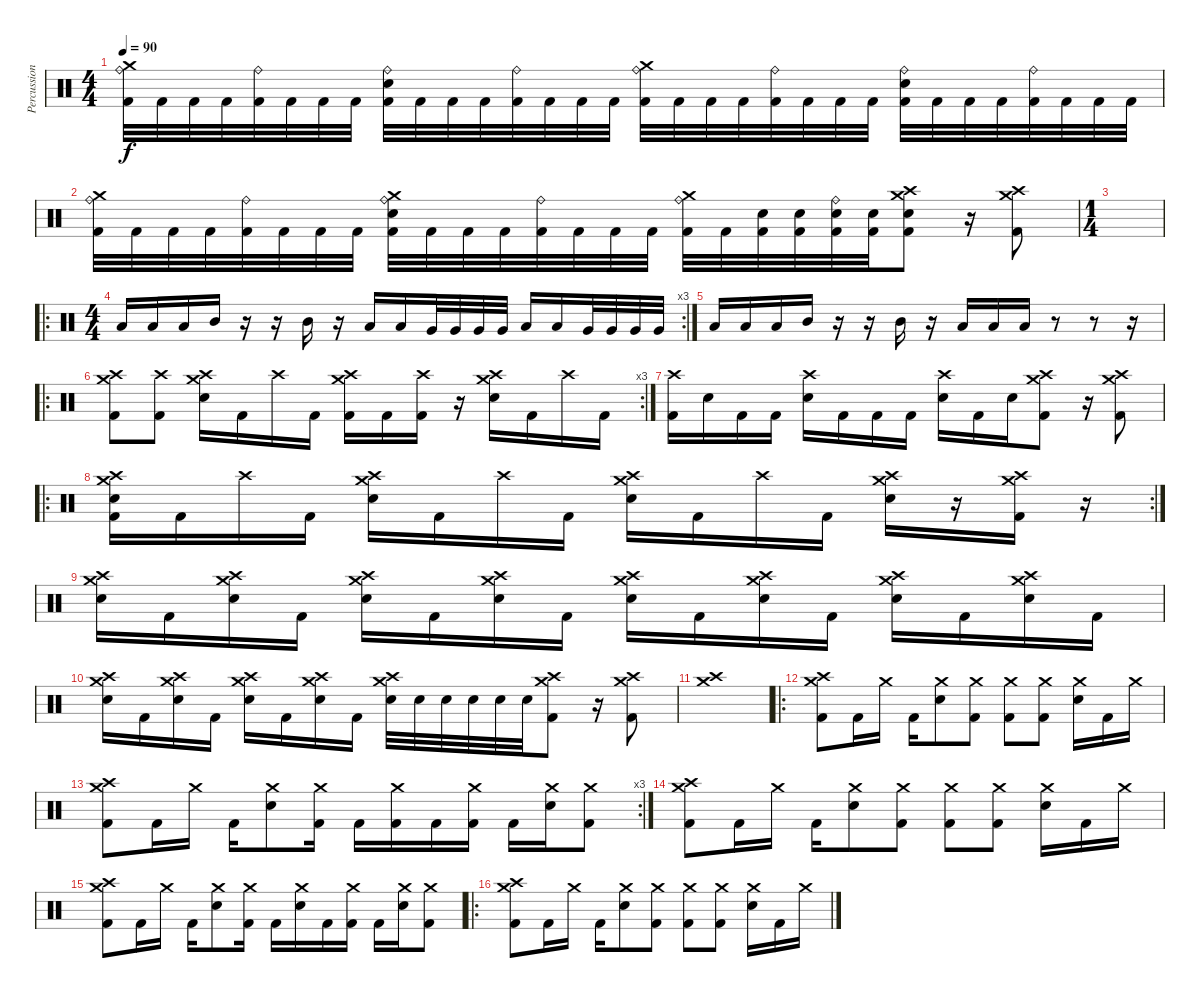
\track ("Percussion" "Percussion") {instrument percussion}
\staff {score}
\articulation defaults
\ts (4 4)
\tempo 90
\clef neutral
\ks c
("Ride (bell)" "Crash medium (hit)" "Kick (hit) 2").32{dy f} "Kick (hit) 2".32 "Kick (hit) 2".32 "Kick (hit) 2".32 ("Ride (bell)" "Kick (hit) 2").32 "Kick (hit) 2".32 "Kick (hit) 2".32 "Kick (hit) 2".32 ("Ride (bell)" "Electric Snare (hit)" "Kick (hit) 2").32 "Kick (hit) 2".32 "Kick (hit) 2".32 "Kick (hit) 2".32 ("Ride (bell)" "Kick (hit) 2").32 "Kick (hit) 2".32 "Kick (hit) 2".32 "Kick (hit) 2".32 ("Ride (bell)" "Crash medium (hit)" "Kick (hit) 2").32 "Kick (hit) 2".32 "Kick (hit) 2".32 "Kick (hit) 2".32 ("Ride (bell)" "Kick (hit) 2").32 "Kick (hit) 2".32 "Kick (hit) 2".32 "Kick (hit) 2".32 ("Ride (bell)" "Electric Snare (hit)" "Kick (hit) 2").32 "Kick (hit) 2".32 "Kick (hit) 2".32 "Kick (hit) 2".32 ("Ride (bell)" "Kick (hit) 2").32 "Kick (hit) 2".32 "Kick (hit) 2".32 "Kick (hit) 2".32 |
("Ride (bell)" "Crash medium (hit)" "Kick (hit) 2").32 "Kick (hit) 2".32 "Kick (hit) 2".32 "Kick (hit) 2".32 ("Ride (bell)" "Kick (hit) 2").32 "Kick (hit) 2".32 "Kick (hit) 2".32 "Kick (hit) 2".32 ("Ride (bell)" "Crash medium (hit)" "Electric Snare (hit)" "Kick (hit) 2").32 "Kick (hit) 2".32 "Kick (hit) 2".32 "Kick (hit) 2".32 ("Ride (bell)" "Kick (hit) 2").32 "Kick (hit) 2".32 "Kick (hit) 2".32 "Kick (hit) 2".32 ("Ride (bell)" "Crash medium (hit)" "Kick (hit) 2").32 "Kick (hit) 2".32 ("Electric Snare (hit)" "Kick (hit) 2").32 ("Electric Snare (hit)" "Kick (hit) 2").32 ("Ride (bell)" "Electric Snare (hit)" "Kick (hit) 2").32 ("Electric Snare (hit)" "Kick (hit) 2").32 ("Crash medium (hit)" "Crash high (hit)" "Electric Snare (hit)" "Kick (hit) 2").8 r.16 ("Crash high (hit)" "Crash medium (hit)" "Kick (hit) 2").8 |
\ts (1 4)
|
\ro
\rc 3
\ts (4 4)
"Low Tom (hit)".16 "Low Tom (hit)".16 "Low Tom (hit)".16 "Mid Tom (hit)".16 r.16 r.16 "Mid Tom (hit)".16 r.16 "Low Tom (hit)".16 "Low Tom (hit)".16 "Very Low Tom (hit)".32 "Very Low Tom (hit)".32 "Very Low Tom (hit)".32 "Very Low Tom (hit)".32 "Low Tom (hit)".16 "Low Tom (hit)".16 "Very Low Tom (hit)".32 "Very Low Tom (hit)".32 "Very Low Tom (hit)".32 "Very Low Tom (hit)".32 |
"Low Tom (hit)".16 "Low Tom (hit)".16 "Low Tom (hit)".16 "Mid Tom (hit)".16 r.16 r.16 "Mid Tom (hit)".16 r.16 "Low Tom (hit)".16 "Low Tom (hit)".16 "Low Tom (hit)".16 r.8 r.8 r.16 |
\ro
\rc 3
("Crash high (hit)" "Crash medium (hit)" "Kick (hit) 2").8 ("Crash high (hit)" "Kick (hit) 2").8 ("Crash high (hit)" "Crash medium (hit)" "Electric Snare (hit)").16 "Kick (hit) 2".16 "Crash high (hit)".16 "Kick (hit) 2".16 ("Crash high (hit)" "Crash medium (hit)" "Kick (hit) 2").16 "Kick (hit) 2".16 ("Crash high (hit)" "Kick (hit) 2").16 r.16 ("Crash high (hit)" "Crash medium (hit)" "Electric Snare (hit)").16 "Kick (hit) 2".16 "Crash high (hit)".16 "Kick (hit) 2".16 |
("Crash high (hit)" "Kick (hit) 2").16 "Electric Snare (hit)".16 "Kick (hit) 2".16 "Kick (hit) 2".16 ("Crash high (hit)" "Electric Snare (hit)").16 "Kick (hit) 2".16 "Kick (hit) 2".16 "Kick (hit) 2".16 ("Crash high (hit)" "Electric Snare (hit)").16 "Kick (hit) 2".16 "Electric Snare (hit)".16 ("Crash high (hit)" "Crash medium (hit)" "Kick (hit) 2").8 r.16 ("Crash high (hit)" "Crash medium (hit)" "Kick (hit) 2").8 |
\ro
\rc 2
("Crash high (hit)" "Crash medium (hit)" "Electric Snare (hit)" "Kick (hit) 2").16 "Kick (hit) 2".16 "Crash high (hit)".16 "Kick (hit) 2".16 ("Crash high (hit)" "Crash medium (hit)" "Electric Snare (hit)").16 "Kick (hit) 2".16 "Crash high (hit)".16 "Kick (hit) 2".16 ("Crash high (hit)" "Crash medium (hit)" "Electric Snare (hit)").16 "Kick (hit) 2".16 "Crash high (hit)".16 "Kick (hit) 2".16 ("Crash high (hit)" "Crash medium (hit)" "Electric Snare (hit)").16 r.16 ("Crash high (hit)" "Crash medium (hit)" "Kick (hit) 2").16 r.16 |
("Crash medium (hit)" "Crash high (hit)" "Electric Snare (hit)").16 "Kick (hit) 2".16 ("Crash medium (hit)" "Crash high (hit)" "Electric Snare (hit)").16 "Kick (hit) 2".16 ("Crash medium (hit)" "Crash high (hit)" "Electric Snare (hit)").16 "Kick (hit) 2".16 ("Crash medium (hit)" "Crash high (hit)" "Electric Snare (hit)").16 "Kick (hit) 2".16 ("Crash medium (hit)" "Crash high (hit)" "Electric Snare (hit)").16 "Kick (hit) 2".16 ("Crash medium (hit)" "Crash high (hit)" "Electric Snare (hit)").16 "Kick (hit) 2".16 ("Crash medium (hit)" "Crash high (hit)" "Electric Snare (hit)").16 "Kick (hit) 2".16 ("Crash medium (hit)" "Crash high (hit)" "Electric Snare (hit)").16 "Kick (hit) 2".16 |
("Crash medium (hit)" "Crash high (hit)" "Electric Snare (hit)").16 "Kick (hit) 2".16 ("Crash medium (hit)" "Crash high (hit)" "Electric Snare (hit)").16 "Kick (hit) 2".16 ("Crash medium (hit)" "Crash high (hit)" "Electric Snare (hit)").16 "Kick (hit) 2".16 ("Crash medium (hit)" "Crash high (hit)" "Electric Snare (hit)").16 "Kick (hit) 2".16 ("Crash medium (hit)" "Crash high (hit)" "Electric Snare (hit)").32 "Electric Snare (hit)".32 "Electric Snare (hit)".32 "Electric Snare (hit)".32 "Electric Snare (hit)".32 "Electric Snare (hit)".32 ("Crash high (hit)" "Crash medium (hit)" "Kick (hit) 2").8 r.16 ("Crash high (hit)" "Crash medium (hit)" "Kick (hit) 2").8 |
("Crash high (hit)" "Crash medium (hit)").1 |
\ro
("Crash medium (hit)" "Crash high (hit)" "Kick (hit) 2").8 "Kick (hit) 2".16 "Crash medium (hit)".16 "Kick (hit) 2".16 ("Crash medium (hit)" "Electric Snare (hit)").8 ("Crash medium (hit)" "Kick (hit) 2").8 ("Crash medium (hit)" "Kick (hit) 2").8 ("Crash medium (hit)" "Kick (hit) 2").8 ("Crash medium (hit)" "Electric Snare (hit)").16 "Kick (hit) 2".16 "Crash medium (hit)".16 |
\rc 3
("Crash medium (hit)" "Crash high (hit)" "Kick (hit) 2").8 "Kick (hit) 2".16 "Crash medium (hit)".16 "Kick (hit) 2".16 ("Crash medium (hit)" "Electric Snare (hit)").8 ("Crash medium (hit)" "Kick (hit) 2").16 "Kick (hit) 2".16 ("Crash medium (hit)" "Kick (hit) 2").16 "Kick (hit) 2".16 ("Crash medium (hit)" "Kick (hit) 2").16 "Kick (hit) 2".16 ("Crash medium (hit)" "Electric Snare (hit)").16 ("Crash medium (hit)" "Kick (hit) 2").8 |
("Crash medium (hit)" "Crash high (hit)" "Kick (hit) 2").8 "Kick (hit) 2".16 "Crash medium (hit)".16 "Kick (hit) 2".16 ("Crash medium (hit)" "Electric Snare (hit)").8 ("Crash medium (hit)" "Kick (hit) 2").8 ("Crash medium (hit)" "Kick (hit) 2").8 ("Crash medium (hit)" "Kick (hit) 2").8 ("Crash medium (hit)" "Electric Snare (hit)").16 "Kick (hit) 2".16 "Crash medium (hit)".16 |
("Crash medium (hit)" "Crash high (hit)" "Kick (hit) 2").8 "Kick (hit) 2".16 "Crash medium (hit)".16 "Kick (hit) 2".16 ("Crash medium (hit)" "Electric Snare (hit)").8 ("Crash medium (hit)" "Kick (hit) 2").16 "Kick (hit) 2".16 ("Crash medium (hit)" "Electric Snare (hit)").16 "Kick (hit) 2".16 ("Crash medium (hit)" "Kick (hit) 2").16 "Kick (hit) 2".16 ("Crash medium (hit)" "Electric Snare (hit)").16 ("Crash medium (hit)" "Kick (hit) 2").8 |
\ro
("Crash medium (hit)" "Crash high (hit)" "Kick (hit) 2").8 "Kick (hit) 2".16 "Crash medium (hit)".16 "Kick (hit) 2".16 ("Crash medium (hit)" "Electric Snare (hit)").8 ("Crash medium (hit)" "Kick (hit) 2").8 ("Crash medium (hit)" "Kick (hit) 2").8 ("Crash medium (hit)" "Kick (hit) 2").8 ("Crash medium (hit)" "Electric Snare (hit)").16 "Kick (hit) 2".16 "Crash medium (hit)".16
